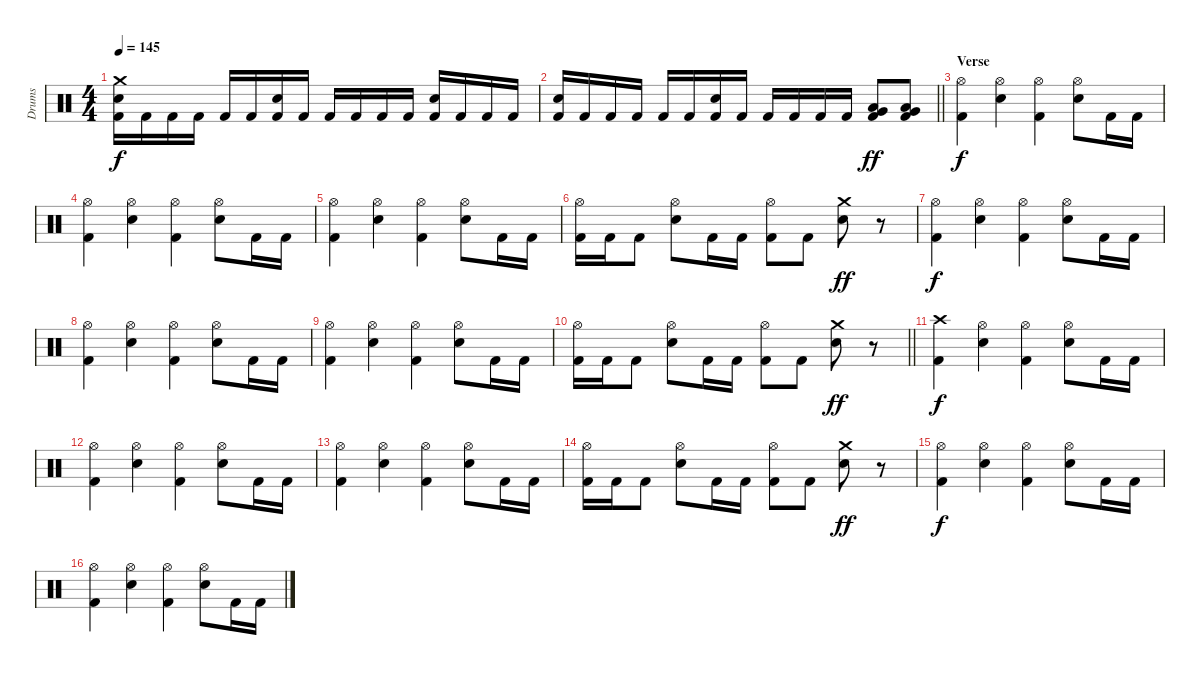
\track ("Drums" "Drums") {instrument percussion}
\staff {score}
\articulation defaults
\ts (4 4)
\tempo 145
\clef neutral
\ks c
("Crash medium (hit)" "Electric Snare (hit)" "Kick (hit) 2").16{dy f} "Kick (hit) 2".16 "Kick (hit) 2".16 "Kick (hit) 2".16 "Kick (hit) 2".16 "Kick (hit) 2".16 ("Electric Snare (hit)" "Kick (hit) 2").16 "Kick (hit) 2".16 "Kick (hit) 2".16 "Kick (hit) 2".16 "Kick (hit) 2".16 "Kick (hit) 2".16 ("Electric Snare (hit)" "Kick (hit) 2").16 "Kick (hit) 2".16 "Kick (hit) 2".16 "Kick (hit) 2".16 |
\barLineRight lightlight
("Electric Snare (hit)" "Kick (hit) 2").16 "Kick (hit) 2".16 "Kick (hit) 2".16 "Kick (hit) 2".16 "Kick (hit) 2".16 "Kick (hit) 2".16 ("Electric Snare (hit)" "Kick (hit) 2").16 "Kick (hit) 2".16 "Kick (hit) 2".16 "Kick (hit) 2".16 "Kick (hit) 2".16 "Kick (hit) 2".16 ("Low Tom (hit)" "Very Low Tom (hit)" "Kick (hit) 2").8{dy ff} ("Low Tom (hit)" "Very Low Tom (hit)" "Kick (hit) 2").8 |
\section ("" "Verse")
("Hi-Hat (open)" "Kick (hit) 2").4{dy f} ("Hi-Hat (open)" "Electric Snare (hit)").4 ("Hi-Hat (open)" "Kick (hit) 2").4 ("Hi-Hat (open)" "Electric Snare (hit)").8 "Kick (hit) 2".16 "Kick (hit) 2".16 |
("Hi-Hat (open)" "Kick (hit) 2").4 ("Hi-Hat (open)" "Electric Snare (hit)").4 ("Hi-Hat (open)" "Kick (hit) 2").4 ("Hi-Hat (open)" "Electric Snare (hit)").8 "Kick (hit) 2".16 "Kick (hit) 2".16 |
("Hi-Hat (open)" "Kick (hit) 2").4 ("Hi-Hat (open)" "Electric Snare (hit)").4 ("Hi-Hat (open)" "Kick (hit) 2").4 ("Hi-Hat (open)" "Electric Snare (hit)").8 "Kick (hit) 2".16 "Kick (hit) 2".16 |
("Hi-Hat (open)" "Kick (hit) 2").16 "Kick (hit) 2".16 "Kick (hit) 2".8 ("Hi-Hat (open)" "Electric Snare (hit)").8 "Kick (hit) 2".16 "Kick (hit) 2".16 ("Hi-Hat (open)" "Kick (hit) 2").8 "Kick (hit) 2".8 ("Crash medium (hit)" "Electric Snare (hit)").8{dy ff} r.8 |
("Hi-Hat (open)" "Kick (hit) 2").4{dy f} ("Hi-Hat (open)" "Electric Snare (hit)").4 ("Hi-Hat (open)" "Kick (hit) 2").4 ("Hi-Hat (open)" "Electric Snare (hit)").8 "Kick (hit) 2".16 "Kick (hit) 2".16 |
("Hi-Hat (open)" "Kick (hit) 2").4 ("Hi-Hat (open)" "Electric Snare (hit)").4 ("Hi-Hat (open)" "Kick (hit) 2").4 ("Hi-Hat (open)" "Electric Snare (hit)").8 "Kick (hit) 2".16 "Kick (hit) 2".16 |
("Hi-Hat (open)" "Kick (hit) 2").4 ("Hi-Hat (open)" "Electric Snare (hit)").4 ("Hi-Hat (open)" "Kick (hit) 2").4 ("Hi-Hat (open)" "Electric Snare (hit)").8 "Kick (hit) 2".16 "Kick (hit) 2".16 |
\barLineRight lightlight
("Hi-Hat (open)" "Kick (hit) 2").16 "Kick (hit) 2".16 "Kick (hit) 2".8 ("Hi-Hat (open)" "Electric Snare (hit)").8 "Kick (hit) 2".16 "Kick (hit) 2".16 ("Hi-Hat (open)" "Kick (hit) 2").8 "Kick (hit) 2".8 ("Crash medium (hit)" "Electric Snare (hit)").8{dy ff} r.8 |
("Crash high (hit)" "Kick (hit) 2").4{dy f} ("Hi-Hat (open)" "Electric Snare (hit)").4 ("Hi-Hat (open)" "Kick (hit) 2").4 ("Hi-Hat (open)" "Electric Snare (hit)").8 "Kick (hit) 2".16 "Kick (hit) 2".16 |
("Hi-Hat (open)" "Kick (hit) 2").4 ("Hi-Hat (open)" "Electric Snare (hit)").4 ("Hi-Hat (open)" "Kick (hit) 2").4 ("Hi-Hat (open)" "Electric Snare (hit)").8 "Kick (hit) 2".16 "Kick (hit) 2".16 |
("Hi-Hat (open)" "Kick (hit) 2").4 ("Hi-Hat (open)" "Electric Snare (hit)").4 ("Hi-Hat (open)" "Kick (hit) 2").4 ("Hi-Hat (open)" "Electric Snare (hit)").8 "Kick (hit) 2".16 "Kick (hit) 2".16 |
("Hi-Hat (open)" "Kick (hit) 2").16 "Kick (hit) 2".16 "Kick (hit) 2".8 ("Hi-Hat (open)" "Electric Snare (hit)").8 "Kick (hit) 2".16 "Kick (hit) 2".16 ("Hi-Hat (open)" "Kick (hit) 2").8 "Kick (hit) 2".8 ("Crash medium (hit)" "Electric Snare (hit)").8{dy ff} r.8 |
("Hi-Hat (open)" "Kick (hit) 2").4{dy f} ("Hi-Hat (open)" "Electric Snare (hit)").4 ("Hi-Hat (open)" "Kick (hit) 2").4 ("Hi-Hat (open)" "Electric Snare (hit)").8 "Kick (hit) 2".16 "Kick (hit) 2".16 |
("Hi-Hat (open)" "Kick (hit) 2").4 ("Hi-Hat (open)" "Electric Snare (hit)").4 ("Hi-Hat (open)" "Kick (hit) 2").4 ("Hi-Hat (open)" "Electric Snare (hit)").8 "Kick (hit) 2".16 "Kick (hit) 2".16
